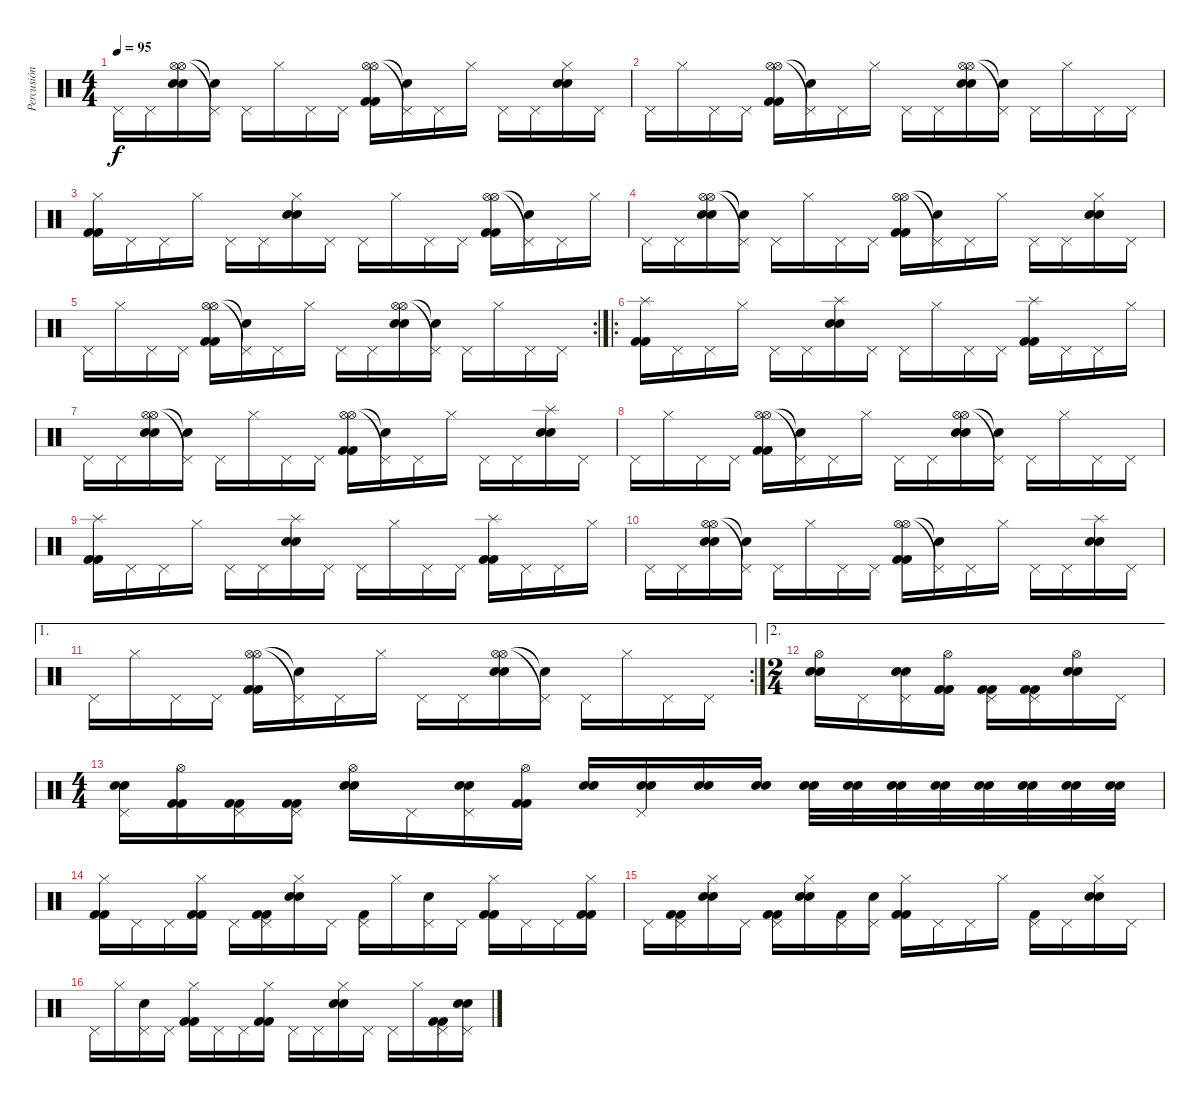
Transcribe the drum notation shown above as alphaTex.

\track ("Percusión" "Percusión") {instrument percussion}
\staff {score}
\articulation defaults
\ts (4 4)
\tempo 95
\clef neutral
\ks c "Pedal Hi-Hat (hit)".16{dy f} "Pedal Hi-Hat (hit)".16
("Hi-Hat (open)" "Hi-Hat (open)" "Electric Snare (hit)" "Electric Snare (hit)").16 ("Pedal Hi-Hat (hit)"{t} "Snare (hit)"{t}).16 "Pedal Hi-Hat (hit)".16 "Hi-Hat (closed)".16 "Pedal Hi-Hat (hit)".16 "Pedal Hi-Hat (hit)".16 ("Hi-Hat (open)" "Hi-Hat (open)" "Kick (hit) 2" "Kick (hit) 2").16 ("Pedal Hi-Hat (hit)"{t} "Snare (hit)"{t}).16 "Pedal Hi-Hat (hit)".16 "Hi-Hat (closed)".16 "Pedal Hi-Hat (hit)".16 "Pedal Hi-Hat (hit)".16 ("Hi-Hat (closed)" "Electric Snare (hit)" "Electric Snare (hit)").16 "Pedal Hi-Hat (hit)".16 |
"Pedal Hi-Hat (hit)".16 "Hi-Hat (closed)".16 "Pedal Hi-Hat (hit)".16 "Pedal Hi-Hat (hit)".16 ("Hi-Hat (open)" "Hi-Hat (open)" "Kick (hit) 2" "Kick (hit) 2").16 ("Pedal Hi-Hat (hit)"{t} "Snare (hit)"{t}).16 "Pedal Hi-Hat (hit)".16 "Hi-Hat (closed)".16 "Pedal Hi-Hat (hit)".16 "Pedal Hi-Hat (hit)".16 ("Hi-Hat (open)" "Hi-Hat (open)" "Electric Snare (hit)" "Electric Snare (hit)").16 ("Pedal Hi-Hat (hit)"{t} "Snare (hit)"{t}).16 "Pedal Hi-Hat (hit)".16 "Hi-Hat (closed)".16 "Pedal Hi-Hat (hit)".16 "Pedal Hi-Hat (hit)".16 |
("Hi-Hat (closed)" "Kick (hit) 2" "Kick (hit) 2").16 "Pedal Hi-Hat (hit)".16 "Pedal Hi-Hat (hit)".16 "Hi-Hat (closed)".16 "Pedal Hi-Hat (hit)".16 "Pedal Hi-Hat (hit)".16 ("Hi-Hat (closed)" "Electric Snare (hit)" "Electric Snare (hit)").16 "Pedal Hi-Hat (hit)".16 "Pedal Hi-Hat (hit)".16 "Hi-Hat (closed)".16 "Pedal Hi-Hat (hit)".16 "Pedal Hi-Hat (hit)".16 ("Hi-Hat (open)" "Hi-Hat (open)" "Kick (hit) 2" "Kick (hit) 2").16 ("Pedal Hi-Hat (hit)"{t} "Snare (hit)"{t}).16 "Pedal Hi-Hat (hit)".16 "Hi-Hat (closed)".16 |
"Pedal Hi-Hat (hit)".16 "Pedal Hi-Hat (hit)".16 ("Hi-Hat (open)" "Hi-Hat (open)" "Electric Snare (hit)" "Electric Snare (hit)").16 ("Pedal Hi-Hat (hit)"{t} "Snare (hit)"{t}).16 "Pedal Hi-Hat (hit)".16 "Hi-Hat (closed)".16 "Pedal Hi-Hat (hit)".16 "Pedal Hi-Hat (hit)".16 ("Hi-Hat (open)" "Hi-Hat (open)" "Kick (hit) 2" "Kick (hit) 2").16 ("Pedal Hi-Hat (hit)"{t} "Snare (hit)"{t}).16 "Pedal Hi-Hat (hit)".16 "Hi-Hat (closed)".16 "Pedal Hi-Hat (hit)".16 "Pedal Hi-Hat (hit)".16 ("Hi-Hat (closed)" "Electric Snare (hit)" "Electric Snare (hit)").16 "Pedal Hi-Hat (hit)".16 |
\rc 2 "Pedal Hi-Hat (hit)".16 "Hi-Hat (closed)".16 "Pedal Hi-Hat (hit)".16 "Pedal Hi-Hat (hit)".16
("Hi-Hat (open)" "Hi-Hat (open)" "Kick (hit) 2" "Kick (hit) 2").16 ("Pedal Hi-Hat (hit)"{t} "Snare (hit)"{t}).16 "Pedal Hi-Hat (hit)".16 "Hi-Hat (closed)".16 "Pedal Hi-Hat (hit)".16 "Pedal Hi-Hat (hit)".16 ("Hi-Hat (open)" "Hi-Hat (open)" "Electric Snare (hit)" "Electric Snare (hit)").16 ("Pedal Hi-Hat (hit)"{t} "Snare (hit)"{t}).16 "Pedal Hi-Hat (hit)".16 "Hi-Hat (closed)".16 "Pedal Hi-Hat (hit)".16 "Pedal Hi-Hat (hit)".16 |
\ro
("Splash (hit)" "Kick (hit) 2" "Kick (hit) 2").16 "Pedal Hi-Hat (hit)".16 "Pedal Hi-Hat (hit)".16 "Hi-Hat (closed)".16 "Pedal Hi-Hat (hit)".16 "Pedal Hi-Hat (hit)".16 ("Splash (hit)" "Electric Snare (hit)" "Electric Snare (hit)").16 "Pedal Hi-Hat (hit)".16 "Pedal Hi-Hat (hit)".16 "Hi-Hat (closed)".16 "Pedal Hi-Hat (hit)".16 "Pedal Hi-Hat (hit)".16 ("Splash (hit)" "Kick (hit) 2" "Kick (hit) 2").16 "Pedal Hi-Hat (hit)".16 "Pedal Hi-Hat (hit)".16 "Hi-Hat (closed)".16 |
"Pedal Hi-Hat (hit)".16 "Pedal Hi-Hat (hit)".16 ("Hi-Hat (open)" "Hi-Hat (open)" "Electric Snare (hit)" "Electric Snare (hit)").16 ("Pedal Hi-Hat (hit)"{t} "Snare (hit)"{t}).16 "Pedal Hi-Hat (hit)".16 "Hi-Hat (closed)".16 "Pedal Hi-Hat (hit)".16 "Pedal Hi-Hat (hit)".16 ("Hi-Hat (open)" "Hi-Hat (open)" "Kick (hit) 2" "Kick (hit) 2").16 ("Pedal Hi-Hat (hit)"{t} "Snare (hit)"{t}).16 "Pedal Hi-Hat (hit)".16 "Hi-Hat (closed)".16 "Pedal Hi-Hat (hit)".16 "Pedal Hi-Hat (hit)".16 ("Splash (hit)" "Electric Snare (hit)" "Electric Snare (hit)").16 "Pedal Hi-Hat (hit)".16 |
"Pedal Hi-Hat (hit)".16 "Hi-Hat (closed)".16 "Pedal Hi-Hat (hit)".16 "Pedal Hi-Hat (hit)".16 ("Hi-Hat (open)" "Hi-Hat (open)" "Kick (hit) 2" "Kick (hit) 2").16 ("Pedal Hi-Hat (hit)"{t} "Snare (hit)"{t}).16 "Pedal Hi-Hat (hit)".16 "Hi-Hat (closed)".16 "Pedal Hi-Hat (hit)".16 "Pedal Hi-Hat (hit)".16 ("Hi-Hat (open)" "Hi-Hat (open)" "Electric Snare (hit)" "Electric Snare (hit)").16 ("Pedal Hi-Hat (hit)"{t} "Snare (hit)"{t}).16 "Pedal Hi-Hat (hit)".16 "Hi-Hat (closed)".16 "Pedal Hi-Hat (hit)".16 "Pedal Hi-Hat (hit)".16 |
("Splash (hit)" "Kick (hit) 2" "Kick (hit) 2").16 "Pedal Hi-Hat (hit)".16 "Pedal Hi-Hat (hit)".16 "Hi-Hat (closed)".16 "Pedal Hi-Hat (hit)".16 "Pedal Hi-Hat (hit)".16 ("Splash (hit)" "Electric Snare (hit)" "Electric Snare (hit)").16 "Pedal Hi-Hat (hit)".16 "Pedal Hi-Hat (hit)".16 "Hi-Hat (closed)".16 "Pedal Hi-Hat (hit)".16 "Pedal Hi-Hat (hit)".16 ("Splash (hit)" "Kick (hit) 2" "Kick (hit) 2").16 "Pedal Hi-Hat (hit)".16 "Pedal Hi-Hat (hit)".16 "Hi-Hat (closed)".16 |
"Pedal Hi-Hat (hit)".16 "Pedal Hi-Hat (hit)".16 ("Hi-Hat (open)" "Hi-Hat (open)" "Electric Snare (hit)" "Electric Snare (hit)").16 ("Pedal Hi-Hat (hit)"{t} "Snare (hit)"{t}).16 "Pedal Hi-Hat (hit)".16 "Hi-Hat (closed)".16 "Pedal Hi-Hat (hit)".16 "Pedal Hi-Hat (hit)".16 ("Hi-Hat (open)" "Hi-Hat (open)" "Kick (hit) 2" "Kick (hit) 2").16 ("Pedal Hi-Hat (hit)"{t} "Snare (hit)"{t}).16 "Pedal Hi-Hat (hit)".16 "Hi-Hat (closed)".16 "Pedal Hi-Hat (hit)".16 "Pedal Hi-Hat (hit)".16 ("Splash (hit)" "Electric Snare (hit)" "Electric Snare (hit)").16 "Pedal Hi-Hat (hit)".16 |
\ae 1
\rc 2 "Pedal Hi-Hat (hit)".16 "Hi-Hat (closed)".16 "Pedal Hi-Hat (hit)".16 "Pedal Hi-Hat (hit)".16
("Hi-Hat (open)" "Hi-Hat (open)" "Kick (hit) 2" "Kick (hit) 2").16 ("Pedal Hi-Hat (hit)"{t} "Snare (hit)"{t}).16 "Pedal Hi-Hat (hit)".16 "Hi-Hat (closed)".16 "Pedal Hi-Hat (hit)".16 "Pedal Hi-Hat (hit)".16 ("Hi-Hat (open)" "Hi-Hat (open)" "Electric Snare (hit)" "Electric Snare (hit)").16 ("Pedal Hi-Hat (hit)"{t} "Snare (hit)"{t}).16 "Pedal Hi-Hat (hit)".16 "Hi-Hat (closed)".16 "Pedal Hi-Hat (hit)".16 "Pedal Hi-Hat (hit)".16 |
\ae 2
\ts (2 4)
("Hi-Hat (open)" "Electric Snare (hit)" "Electric Snare (hit)").16 "Pedal Hi-Hat (hit)".16 ("Pedal Hi-Hat (hit)" "Electric Snare (hit)" "Electric Snare (hit)").16 ("Hi-Hat (open)" "Kick (hit) 2" "Kick (hit) 2").16 ("Pedal Hi-Hat (hit)" "Kick (hit) 2" "Kick (hit) 2").16 ("Pedal Hi-Hat (hit)" "Kick (hit) 2" "Kick (hit) 2").16 ("Hi-Hat (open)" "Electric Snare (hit)" "Electric Snare (hit)").16 "Pedal Hi-Hat (hit)".16 |
\ts (4 4)
("Pedal Hi-Hat (hit)" "Electric Snare (hit)" "Electric Snare (hit)").16 ("Hi-Hat (open)" "Kick (hit) 2" "Kick (hit) 2").16 ("Pedal Hi-Hat (hit)" "Kick (hit) 2" "Kick (hit) 2").16 ("Pedal Hi-Hat (hit)" "Kick (hit) 2" "Kick (hit) 2").16 ("Hi-Hat (open)" "Electric Snare (hit)" "Electric Snare (hit)").16 "Pedal Hi-Hat (hit)".16 ("Pedal Hi-Hat (hit)" "Electric Snare (hit)" "Electric Snare (hit)").16 ("Hi-Hat (open)" "Kick (hit) 2" "Kick (hit) 2").16 ("Electric Snare (hit)" "Electric Snare (hit)").16 ("Pedal Hi-Hat (hit)" "Electric Snare (hit)" "Electric Snare (hit)").16 ("Electric Snare (hit)" "Electric Snare (hit)").16 ("Electric Snare (hit)" "Electric Snare (hit)").16 ("Electric Snare (hit)" "Electric Snare (hit)").32 ("Electric Snare (hit)" "Electric Snare (hit)").32 ("Electric Snare (hit)" "Electric Snare (hit)").32 ("Electric Snare (hit)" "Electric Snare (hit)").32 ("Electric Snare (hit)" "Electric Snare (hit)").32 ("Electric Snare (hit)" "Electric Snare (hit)").32 ("Electric Snare (hit)" "Electric Snare (hit)").32 ("Electric Snare (hit)" "Electric Snare (hit)").32 |
("Hi-Hat (closed)" "Kick (hit) 2" "Kick (hit) 2").16 "Pedal Hi-Hat (hit)".16 "Pedal Hi-Hat (hit)".16 ("Hi-Hat (closed)" "Kick (hit) 2" "Kick (hit) 2").16 "Pedal Hi-Hat (hit)".16 ("Pedal Hi-Hat (hit)" "Kick (hit) 2" "Kick (hit) 2").16 ("Hi-Hat (closed)" "Electric Snare (hit)" "Electric Snare (hit)").16 "Pedal Hi-Hat (hit)".16 ("Pedal Hi-Hat (hit)" "Kick (hit) 2").16 "Hi-Hat (closed)".16 ("Pedal Hi-Hat (hit)" "Electric Snare (hit)").16 "Pedal Hi-Hat (hit)".16 ("Hi-Hat (closed)" "Kick (hit) 2" "Kick (hit) 2").16 "Pedal Hi-Hat (hit)".16 "Pedal Hi-Hat (hit)".16 ("Hi-Hat (closed)" "Kick (hit) 2" "Kick (hit) 2").16 |
"Pedal Hi-Hat (hit)".16 ("Pedal Hi-Hat (hit)" "Kick (hit) 2" "Kick (hit) 2").16 ("Hi-Hat (closed)" "Electric Snare (hit)" "Electric Snare (hit)").16 "Pedal Hi-Hat (hit)".16 ("Pedal Hi-Hat (hit)" "Kick (hit) 2" "Kick (hit) 2").16 ("Hi-Hat (closed)" "Electric Snare (hit)" "Electric Snare (hit)").16 ("Pedal Hi-Hat (hit)" "Kick (hit) 2").16 ("Pedal Hi-Hat (hit)" "Electric Snare (hit)").16 ("Hi-Hat (closed)" "Kick (hit) 2" "Kick (hit) 2").16 "Pedal Hi-Hat (hit)".16 "Pedal Hi-Hat (hit)".16 "Hi-Hat (closed)".16 ("Pedal Hi-Hat (hit)" "Kick (hit) 2").16 "Pedal Hi-Hat (hit)".16 ("Hi-Hat (closed)" "Electric Snare (hit)" "Electric Snare (hit)").16 "Pedal Hi-Hat (hit)".16 |
"Pedal Hi-Hat (hit)".16 "Hi-Hat (closed)".16 ("Pedal Hi-Hat (hit)" "Electric Snare (hit)").16 "Pedal Hi-Hat (hit)".16 ("Hi-Hat (closed)" "Kick (hit) 2" "Kick (hit) 2").16 "Pedal Hi-Hat (hit)".16 "Pedal Hi-Hat (hit)".16 ("Hi-Hat (closed)" "Kick (hit) 2" "Kick (hit) 2").16 "Pedal Hi-Hat (hit)".16 "Pedal Hi-Hat (hit)".16 ("Hi-Hat (closed)" "Electric Snare (hit)" "Electric Snare (hit)").16 "Pedal Hi-Hat (hit)".16 "Pedal Hi-Hat (hit)".16 "Hi-Hat (closed)".16 ("Pedal Hi-Hat (hit)" "Kick (hit) 2" "Kick (hit) 2").16 ("Pedal Hi-Hat (hit)" "Electric Snare (hit)" "Electric Snare (hit)").16
